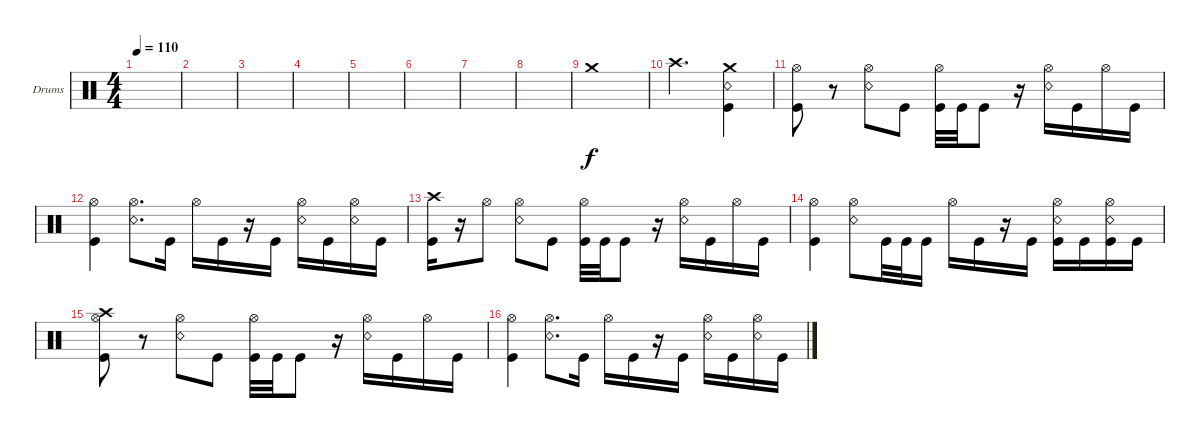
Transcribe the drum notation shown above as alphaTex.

\bracketExtendMode groupsimilarinstruments
\firstSystemTrackNameOrientation horizontal
\otherSystemsTrackNameOrientation horizontal
\track ("Drumkit" "Drums") {instrument percussion}
\staff {score}
\articulation defaults
\ts (4 4)
\tempo 110
\clef neutral
\ks c
|
|
|
|
|
|
|
|
"Crash medium (hit)".1 |
"Crash high (hit)".2{d} ("Kick (hit)" "Snare (rim shot)" "Crash medium (hit)").4 |
("Kick (hit)" "Hi-Hat (open)").8 r.8 ("Snare (rim shot)" "Hi-Hat (open)").8 "Kick (hit)".8 ("Kick (hit)" "Hi-Hat (open)").32 "Kick (hit)".32 "Kick (hit)".8 r.16 ("Snare (rim shot)" "Hi-Hat (open)").16 "Kick (hit)".16 "Hi-Hat (open)".16 "Kick (hit)".16 |
("Kick (hit)" "Hi-Hat (open)").4 ("Snare (rim shot)" "Hi-Hat (open)").8{d} "Kick (hit)".16 "Hi-Hat (open)".16 "Kick (hit)".16 r.16 "Kick (hit)".16 ("Snare (rim shot)" "Hi-Hat (open)").16 "Kick (hit)".16 ("Snare (rim shot)" "Hi-Hat (open)").16 "Kick (hit)".16 |
("Kick (hit)" "Crash high (hit)").16 r.16 "Hi-Hat (open)".8 ("Snare (rim shot)" "Hi-Hat (open)").8 "Kick (hit)".8 ("Kick (hit)" "Hi-Hat (open)").32 "Kick (hit)".32 "Kick (hit)".8 r.16 ("Snare (rim shot)" "Hi-Hat (open)").16 "Kick (hit)".16 "Hi-Hat (open)".16 "Kick (hit)".16 |
("Kick (hit)" "Hi-Hat (open)").4 ("Snare (rim shot)" "Hi-Hat (open)").8 "Kick (hit)".32 "Kick (hit)".32 "Kick (hit)".16 "Hi-Hat (open)".16 "Kick (hit)".16 r.16 "Kick (hit)".16 ("Snare (rim shot)" "Hi-Hat (open)" "Kick (hit)").16 "Kick (hit)".16 ("Snare (rim shot)" "Hi-Hat (open)" "Kick (hit)").16 "Kick (hit)".16 |
("Kick (hit)" "Hi-Hat (open)" "Crash high (hit)").8 r.8 ("Snare (rim shot)" "Hi-Hat (open)").8 "Kick (hit)".8 ("Kick (hit)" "Hi-Hat (open)").32 "Kick (hit)".32 "Kick (hit)".8 r.16 ("Snare (rim shot)" "Hi-Hat (open)").16 "Kick (hit)".16 "Hi-Hat (open)".16 "Kick (hit)".16 |
("Kick (hit)" "Hi-Hat (open)").4 ("Snare (rim shot)" "Hi-Hat (open)").8{d} "Kick (hit)".16 "Hi-Hat (open)".16 "Kick (hit)".16 r.16 "Kick (hit)".16 ("Snare (rim shot)" "Hi-Hat (open)").16 "Kick (hit)".16 ("Snare (rim shot)" "Hi-Hat (open)").16 "Kick (hit)".16
